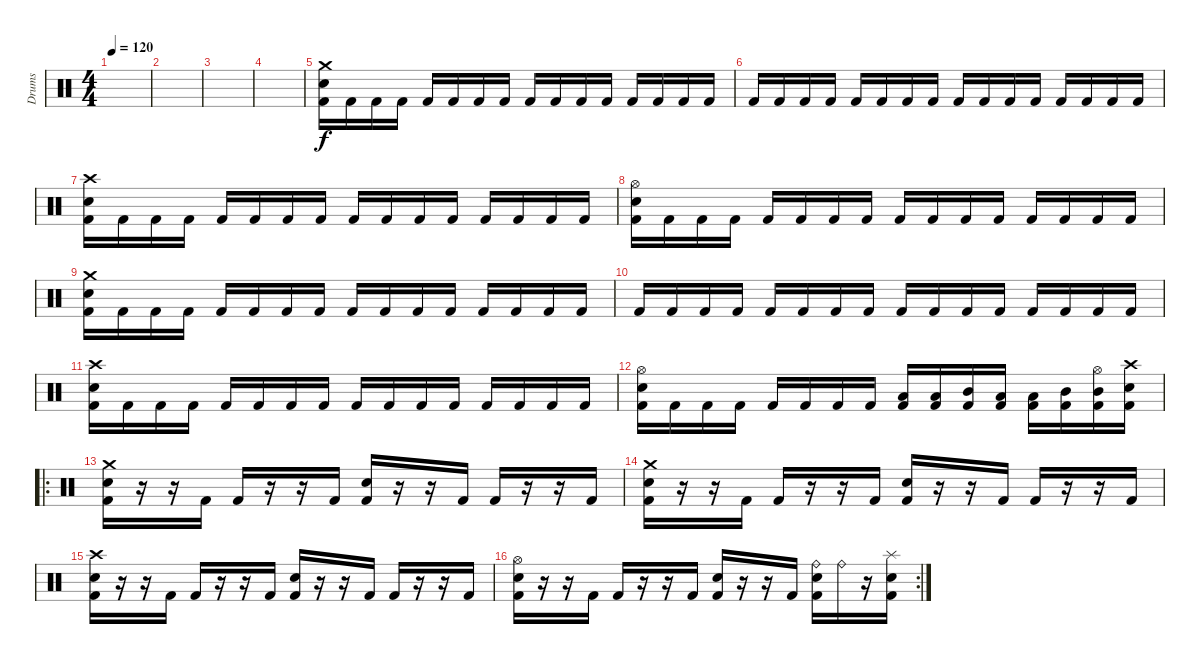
\track ("Drums" "Drums") {instrument percussion}
\staff {score}
\articulation defaults
\ts (4 4)
\tempo 120
\clef neutral
\ks c
|
|
|
|
("Crash medium (hit)" "Electric Snare (hit)" "Kick (hit) 2").16 "Kick (hit) 2".16 "Kick (hit) 2".16 "Kick (hit) 2".16 "Kick (hit) 2".16 "Kick (hit) 2".16 "Kick (hit) 2".16 "Kick (hit) 2".16 "Kick (hit) 2".16 "Kick (hit) 2".16 "Kick (hit) 2".16 "Kick (hit) 2".16 "Kick (hit) 2".16 "Kick (hit) 2".16 "Kick (hit) 2".16 "Kick (hit) 2".16 |
"Kick (hit) 2".16 "Kick (hit) 2".16 "Kick (hit) 2".16 "Kick (hit) 2".16 "Kick (hit) 2".16 "Kick (hit) 2".16 "Kick (hit) 2".16 "Kick (hit) 2".16 "Kick (hit) 2".16 "Kick (hit) 2".16 "Kick (hit) 2".16 "Kick (hit) 2".16 "Kick (hit) 2".16 "Kick (hit) 2".16 "Kick (hit) 2".16 "Kick (hit) 2".16 |
("Crash high (hit)" "Electric Snare (hit)" "Kick (hit) 2").16 "Kick (hit) 2".16 "Kick (hit) 2".16 "Kick (hit) 2".16 "Kick (hit) 2".16 "Kick (hit) 2".16 "Kick (hit) 2".16 "Kick (hit) 2".16 "Kick (hit) 2".16 "Kick (hit) 2".16 "Kick (hit) 2".16 "Kick (hit) 2".16 "Kick (hit) 2".16 "Kick (hit) 2".16 "Kick (hit) 2".16 "Kick (hit) 2".16 |
("Hi-Hat (open)" "Electric Snare (hit)" "Kick (hit) 2").16 "Kick (hit) 2".16 "Kick (hit) 2".16 "Kick (hit) 2".16 "Kick (hit) 2".16 "Kick (hit) 2".16 "Kick (hit) 2".16 "Kick (hit) 2".16 "Kick (hit) 2".16 "Kick (hit) 2".16 "Kick (hit) 2".16 "Kick (hit) 2".16 "Kick (hit) 2".16 "Kick (hit) 2".16 "Kick (hit) 2".16 "Kick (hit) 2".16 |
("Crash medium (hit)" "Electric Snare (hit)" "Kick (hit) 2").16 "Kick (hit) 2".16 "Kick (hit) 2".16 "Kick (hit) 2".16 "Kick (hit) 2".16 "Kick (hit) 2".16 "Kick (hit) 2".16 "Kick (hit) 2".16 "Kick (hit) 2".16 "Kick (hit) 2".16 "Kick (hit) 2".16 "Kick (hit) 2".16 "Kick (hit) 2".16 "Kick (hit) 2".16 "Kick (hit) 2".16 "Kick (hit) 2".16 |
"Kick (hit) 2".16 "Kick (hit) 2".16 "Kick (hit) 2".16 "Kick (hit) 2".16 "Kick (hit) 2".16 "Kick (hit) 2".16 "Kick (hit) 2".16 "Kick (hit) 2".16 "Kick (hit) 2".16 "Kick (hit) 2".16 "Kick (hit) 2".16 "Kick (hit) 2".16 "Kick (hit) 2".16 "Kick (hit) 2".16 "Kick (hit) 2".16 "Kick (hit) 2".16 |
("Crash high (hit)" "Electric Snare (hit)" "Kick (hit) 2").16 "Kick (hit) 2".16 "Kick (hit) 2".16 "Kick (hit) 2".16 "Kick (hit) 2".16 "Kick (hit) 2".16 "Kick (hit) 2".16 "Kick (hit) 2".16 "Kick (hit) 2".16 "Kick (hit) 2".16 "Kick (hit) 2".16 "Kick (hit) 2".16 "Kick (hit) 2".16 "Kick (hit) 2".16 "Kick (hit) 2".16 "Kick (hit) 2".16 |
("Hi-Hat (open)" "Electric Snare (hit)" "Kick (hit) 2").16 "Kick (hit) 2".16 "Kick (hit) 2".16 "Kick (hit) 2".16 "Kick (hit) 2".16 "Kick (hit) 2".16 "Kick (hit) 2".16 "Kick (hit) 2".16 ("Low Tom (hit)" "Kick (hit) 2").16 ("Low Tom (hit)" "Kick (hit) 2").16 ("Mid Tom (hit)" "Kick (hit) 2").16 ("Low Floor Tom (hit)" "Kick (hit) 2").16 ("Low Tom (hit)" "Kick (hit) 2").16 ("Mid Tom (hit)" "Kick (hit) 2").16 ("Hi-Hat (open)" "Mid Tom (hit)" "Kick (hit) 2").16 ("Crash high (hit)" "Electric Snare (hit)" "Kick (hit) 2").16 |
\ro
("Crash medium (hit)" "Electric Snare (hit)" "Kick (hit) 2").16 r.16 r.16 "Kick (hit) 2".16 "Kick (hit) 2".16 r.16 r.16 "Kick (hit) 2".16 ("Electric Snare (hit)" "Kick (hit) 2").16 r.16 r.16 "Kick (hit) 2".16 "Kick (hit) 2".16 r.16 r.16 "Kick (hit) 2".16 |
("Crash medium (hit)" "Electric Snare (hit)" "Kick (hit) 2").16 r.16 r.16 "Kick (hit) 2".16 "Kick (hit) 2".16 r.16 r.16 "Kick (hit) 2".16 ("Electric Snare (hit)" "Kick (hit) 2").16 r.16 r.16 "Kick (hit) 2".16 "Kick (hit) 2".16 r.16 r.16 "Kick (hit) 2".16 |
("Crash high (hit)" "Electric Snare (hit)" "Kick (hit) 2").16 r.16 r.16 "Kick (hit) 2".16 "Kick (hit) 2".16 r.16 r.16 "Kick (hit) 2".16 ("Electric Snare (hit)" "Kick (hit) 2").16 r.16 r.16 "Kick (hit) 2".16 "Kick (hit) 2".16 r.16 r.16 "Kick (hit) 2".16 |
\rc 2
("Hi-Hat (open)" "Electric Snare (hit)" "Kick (hit) 2").16 r.16 r.16 "Kick (hit) 2".16 "Kick (hit) 2".16 r.16 r.16 "Kick (hit) 2".16 ("Electric Snare (hit)" "Kick (hit) 2").16 r.16 r.16 "Kick (hit) 2".16 ("Ride (bell)" "Electric Snare (hit)" "Kick (hit) 2").16 "Ride (bell)".16 r.16 ("Splash (hit)" "Electric Snare (hit)" "Kick (hit) 2").16
